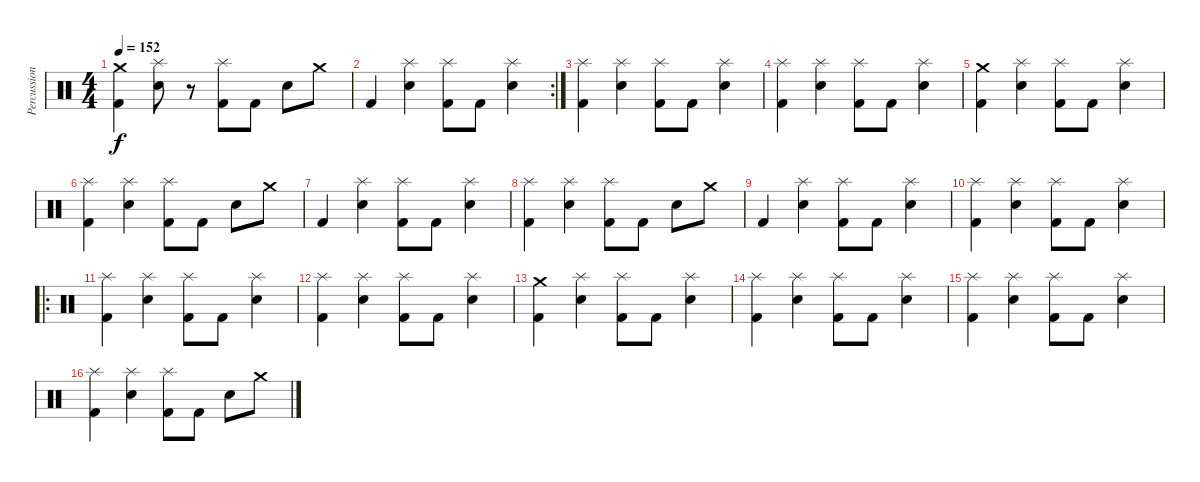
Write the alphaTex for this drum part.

\track ("Percussion" "Percussion") {instrument percussion}
\staff {score}
\articulation defaults
\ts (4 4)
\tempo 152
\clef neutral
\ks c
("Crash medium (hit)"{t} "Kick (hit) 2").4{dy f} ("Splash (hit)" "Snare (hit) 2").8 r.8 ("Splash (hit)" "Kick (hit) 2").8 "Kick (hit) 2".8 "Snare (hit) 2".8 "Crash medium (hit)".8 |
\rc 2 "Kick (hit) 2".4
("Splash (hit)" "Snare (hit) 2").4 ("Splash (hit)" "Kick (hit) 2").8 "Kick (hit) 2".8 ("Splash (hit)" "Snare (hit) 2").4 |
("Splash (hit)" "Kick (hit) 2").4 ("Splash (hit)" "Snare (hit) 2").4 ("Splash (hit)" "Kick (hit) 2").8 "Kick (hit) 2".8 ("Splash (hit)" "Snare (hit) 2").4 |
("Splash (hit)" "Kick (hit) 2").4 ("Splash (hit)" "Snare (hit) 2").4 ("Splash (hit)" "Kick (hit) 2").8 "Kick (hit) 2".8 ("Splash (hit)" "Snare (hit) 2").4 |
("Crash medium (hit)" "Kick (hit) 2").4 ("Splash (hit)" "Snare (hit) 2").4 ("Splash (hit)" "Kick (hit) 2").8 "Kick (hit) 2".8 ("Splash (hit)" "Snare (hit) 2").4 |
("Splash (hit)" "Kick (hit) 2").4 ("Splash (hit)" "Snare (hit) 2").4 ("Splash (hit)" "Kick (hit) 2").8 "Kick (hit) 2".8 "Snare (hit) 2".8 "Crash medium (hit)".8 |
"Kick (hit) 2".4 ("Splash (hit)" "Snare (hit) 2").4 ("Splash (hit)" "Kick (hit) 2").8 "Kick (hit) 2".8 ("Splash (hit)" "Snare (hit) 2").4 |
("Splash (hit)" "Kick (hit) 2").4 ("Splash (hit)" "Snare (hit) 2").4 ("Splash (hit)" "Kick (hit) 2").8 "Kick (hit) 2".8 "Snare (hit) 2".8 "Crash medium (hit)".8 |
"Kick (hit) 2".4 ("Splash (hit)" "Snare (hit) 2").4 ("Splash (hit)" "Kick (hit) 2").8 "Kick (hit) 2".8 ("Splash (hit)" "Snare (hit) 2").4 |
("Splash (hit)" "Kick (hit) 2").4 ("Splash (hit)" "Snare (hit) 2").4 ("Splash (hit)" "Kick (hit) 2").8 "Kick (hit) 2".8 ("Splash (hit)" "Snare (hit) 2").4 |
\ro
("Splash (hit)" "Kick (hit) 2").4 ("Splash (hit)" "Snare (hit) 2").4 ("Splash (hit)" "Kick (hit) 2").8 "Kick (hit) 2".8 ("Splash (hit)" "Snare (hit) 2").4 |
("Splash (hit)" "Kick (hit) 2").4 ("Splash (hit)" "Snare (hit) 2").4 ("Splash (hit)" "Kick (hit) 2").8 "Kick (hit) 2".8 ("Splash (hit)" "Snare (hit) 2").4 |
("Crash medium (hit)" "Kick (hit) 2").4 ("Splash (hit)" "Snare (hit) 2").4 ("Splash (hit)" "Kick (hit) 2").8 "Kick (hit) 2".8 ("Splash (hit)" "Snare (hit) 2").4 |
("Splash (hit)" "Kick (hit) 2").4 ("Splash (hit)" "Snare (hit) 2").4 ("Splash (hit)" "Kick (hit) 2").8 "Kick (hit) 2".8 ("Splash (hit)" "Snare (hit) 2").4 |
("Splash (hit)" "Kick (hit) 2").4 ("Splash (hit)" "Snare (hit) 2").4 ("Splash (hit)" "Kick (hit) 2").8 "Kick (hit) 2".8 ("Splash (hit)" "Snare (hit) 2").4 |
("Splash (hit)" "Kick (hit) 2").4 ("Splash (hit)" "Snare (hit) 2").4 ("Splash (hit)" "Kick (hit) 2").8 "Kick (hit) 2".8 "Snare (hit) 2".8 "Crash medium (hit)".8
